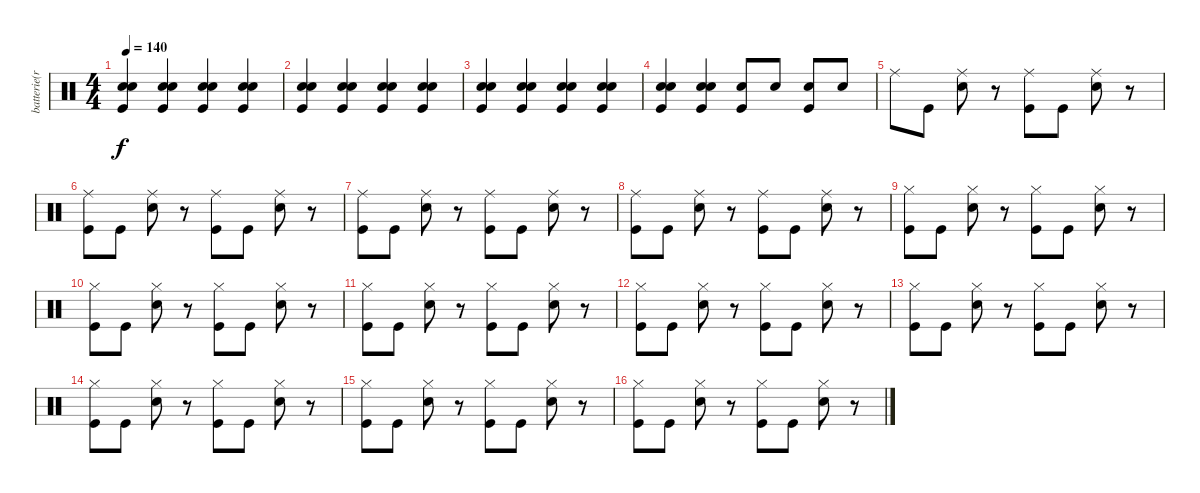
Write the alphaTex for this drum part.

\track ("batterie(ricky)" "batterie(r") {instrument percussion}
\staff {score}
\articulation defaults
\ts (4 4)
\tempo 140
\clef neutral
\ks c
("Hand Clap (hit)" "Snare (hit) 2" "Kick (hit)").4{dy f} ("Hand Clap (hit)" "Snare (hit) 2" "Kick (hit)").4 ("Hand Clap (hit)" "Snare (hit) 2" "Kick (hit)").4 ("Hand Clap (hit)" "Snare (hit) 2" "Kick (hit)").4 |
("Hand Clap (hit)" "Snare (hit) 2" "Kick (hit)").4 ("Hand Clap (hit)" "Snare (hit) 2" "Kick (hit)").4 ("Hand Clap (hit)" "Snare (hit) 2" "Kick (hit)").4 ("Hand Clap (hit)" "Snare (hit) 2" "Kick (hit)").4 |
("Hand Clap (hit)" "Snare (hit) 2" "Kick (hit)").4 ("Hand Clap (hit)" "Snare (hit) 2" "Kick (hit)").4 ("Hand Clap (hit)" "Snare (hit) 2" "Kick (hit)").4 ("Hand Clap (hit)" "Snare (hit) 2" "Kick (hit)").4 |
("Hand Clap (hit)" "Snare (hit) 2" "Kick (hit)").4 ("Hand Clap (hit)" "Snare (hit) 2" "Kick (hit)").4 ("Snare (hit) 2" "Kick (hit)").8 "Snare (hit) 2".8 ("Snare (hit) 2" "Kick (hit)").8 "Snare (hit) 2".8 |
"Ride (middle)".8 "Kick (hit)".8 ("Ride (middle)" "Snare (hit) 2").8 r.8 ("Ride (middle)" "Kick (hit)").8 "Kick (hit)".8 ("Ride (middle)" "Snare (hit) 2").8 r.8 |
("Ride (middle)" "Kick (hit)").8 "Kick (hit)".8 ("Ride (middle)" "Snare (hit) 2").8 r.8 ("Ride (middle)" "Kick (hit)").8 "Kick (hit)".8 ("Ride (middle)" "Snare (hit) 2").8 r.8 |
("Ride (middle)" "Kick (hit)").8 "Kick (hit)".8 ("Ride (middle)" "Snare (hit) 2").8 r.8 ("Ride (middle)" "Kick (hit)").8 "Kick (hit)".8 ("Ride (middle)" "Snare (hit) 2").8 r.8 |
("Ride (middle)" "Kick (hit)").8 "Kick (hit)".8 ("Ride (middle)" "Snare (hit) 2").8 r.8 ("Ride (middle)" "Kick (hit)").8 "Kick (hit)".8 ("Ride (middle)" "Snare (hit) 2").8 r.8 |
("Hi-Hat (closed)" "Kick (hit)").8 "Kick (hit)".8 ("Hi-Hat (closed)" "Snare (hit) 2").8 r.8 ("Hi-Hat (closed)" "Kick (hit)").8 "Kick (hit)".8 ("Hi-Hat (closed)" "Snare (hit) 2").8 r.8 |
("Hi-Hat (closed)" "Kick (hit)").8 "Kick (hit)".8 ("Hi-Hat (closed)" "Snare (hit) 2").8 r.8 ("Hi-Hat (closed)" "Kick (hit)").8 "Kick (hit)".8 ("Hi-Hat (closed)" "Snare (hit) 2").8 r.8 |
("Hi-Hat (closed)" "Kick (hit)").8 "Kick (hit)".8 ("Hi-Hat (closed)" "Snare (hit) 2").8 r.8 ("Hi-Hat (closed)" "Kick (hit)").8 "Kick (hit)".8 ("Hi-Hat (closed)" "Snare (hit) 2").8 r.8 |
("Hi-Hat (closed)" "Kick (hit)").8 "Kick (hit)".8 ("Hi-Hat (closed)" "Snare (hit) 2").8 r.8 ("Hi-Hat (closed)" "Kick (hit)").8 "Kick (hit)".8 ("Hi-Hat (closed)" "Snare (hit) 2").8 r.8 |
("Hi-Hat (closed)" "Kick (hit)").8 "Kick (hit)".8 ("Hi-Hat (closed)" "Snare (hit) 2").8 r.8 ("Hi-Hat (closed)" "Kick (hit)").8 "Kick (hit)".8 ("Hi-Hat (closed)" "Snare (hit) 2").8 r.8 |
("Hi-Hat (closed)" "Kick (hit)").8 "Kick (hit)".8 ("Hi-Hat (closed)" "Snare (hit) 2").8 r.8 ("Hi-Hat (closed)" "Kick (hit)").8 "Kick (hit)".8 ("Hi-Hat (closed)" "Snare (hit) 2").8 r.8 |
("Hi-Hat (closed)" "Kick (hit)").8 "Kick (hit)".8 ("Hi-Hat (closed)" "Snare (hit) 2").8 r.8 ("Hi-Hat (closed)" "Kick (hit)").8 "Kick (hit)".8 ("Hi-Hat (closed)" "Snare (hit) 2").8 r.8 |
("Hi-Hat (closed)" "Kick (hit)").8 "Kick (hit)".8 ("Hi-Hat (closed)" "Snare (hit) 2").8 r.8 ("Hi-Hat (closed)" "Kick (hit)").8 "Kick (hit)".8 ("Hi-Hat (closed)" "Snare (hit) 2").8 r.8
